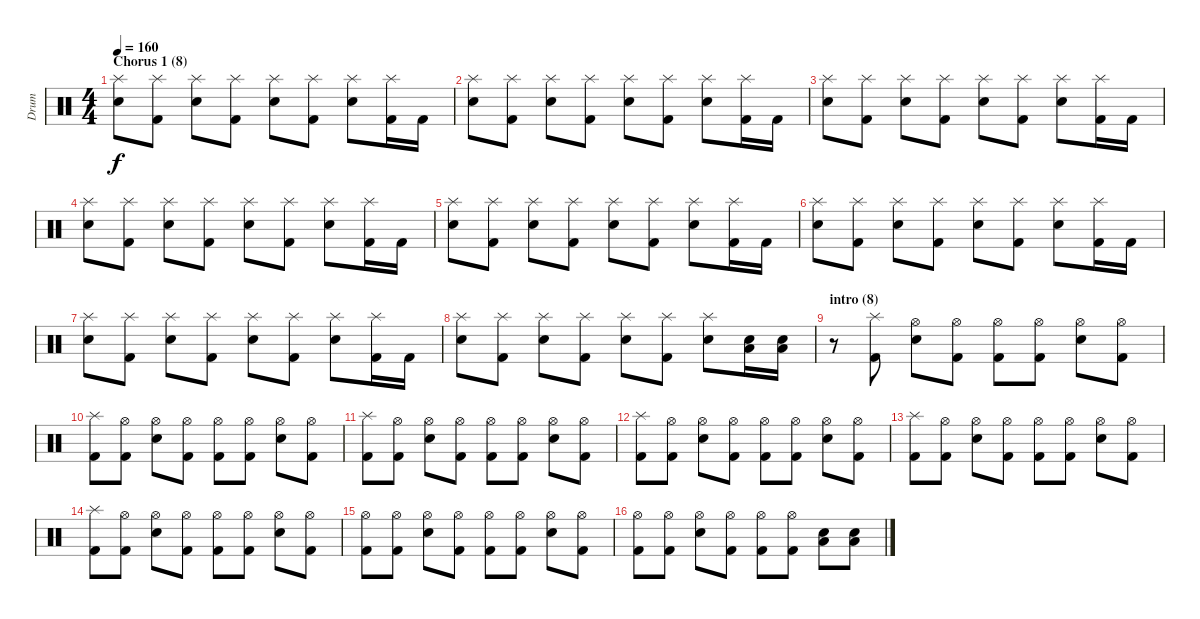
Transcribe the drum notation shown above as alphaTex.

\track ("Drum" "Drum") {instrument percussion}
\staff {score}
\articulation defaults
\ts (4 4)
\section ("" "Chorus 1 (8)")
\tempo 160
\clef neutral
\ks c
("Splash (hit)" "Snare (hit) 2").8{dy f} ("Splash (hit)" "Kick (hit) 2").8 ("Splash (hit)" "Snare (hit) 2").8 ("Splash (hit)" "Kick (hit) 2").8 ("Splash (hit)" "Snare (hit) 2").8 ("Splash (hit)" "Kick (hit) 2").8 ("Splash (hit)" "Snare (hit) 2").8 ("Splash (hit)" "Kick (hit) 2").16 "Kick (hit) 2".16 |
("Splash (hit)" "Snare (hit) 2").8 ("Splash (hit)" "Kick (hit) 2").8 ("Splash (hit)" "Snare (hit) 2").8 ("Splash (hit)" "Kick (hit) 2").8 ("Splash (hit)" "Snare (hit) 2").8 ("Splash (hit)" "Kick (hit) 2").8 ("Splash (hit)" "Snare (hit) 2").8 ("Splash (hit)" "Kick (hit) 2").16 "Kick (hit) 2".16 |
("Splash (hit)" "Snare (hit) 2").8 ("Splash (hit)" "Kick (hit) 2").8 ("Splash (hit)" "Snare (hit) 2").8 ("Splash (hit)" "Kick (hit) 2").8 ("Splash (hit)" "Snare (hit) 2").8 ("Splash (hit)" "Kick (hit) 2").8 ("Splash (hit)" "Snare (hit) 2").8 ("Splash (hit)" "Kick (hit) 2").16 "Kick (hit) 2".16 |
("Splash (hit)" "Snare (hit) 2").8 ("Splash (hit)" "Kick (hit) 2").8 ("Splash (hit)" "Snare (hit) 2").8 ("Splash (hit)" "Kick (hit) 2").8 ("Splash (hit)" "Snare (hit) 2").8 ("Splash (hit)" "Kick (hit) 2").8 ("Splash (hit)" "Snare (hit) 2").8 ("Splash (hit)" "Kick (hit) 2").16 "Kick (hit) 2".16 |
("Splash (hit)" "Snare (hit) 2").8 ("Splash (hit)" "Kick (hit) 2").8 ("Splash (hit)" "Snare (hit) 2").8 ("Splash (hit)" "Kick (hit) 2").8 ("Splash (hit)" "Snare (hit) 2").8 ("Splash (hit)" "Kick (hit) 2").8 ("Splash (hit)" "Snare (hit) 2").8 ("Splash (hit)" "Kick (hit) 2").16 "Kick (hit) 2".16 |
("Splash (hit)" "Snare (hit) 2").8 ("Splash (hit)" "Kick (hit) 2").8 ("Splash (hit)" "Snare (hit) 2").8 ("Splash (hit)" "Kick (hit) 2").8 ("Splash (hit)" "Snare (hit) 2").8 ("Splash (hit)" "Kick (hit) 2").8 ("Splash (hit)" "Snare (hit) 2").8 ("Splash (hit)" "Kick (hit) 2").16 "Kick (hit) 2".16 |
("Splash (hit)" "Snare (hit) 2").8 ("Splash (hit)" "Kick (hit) 2").8 ("Splash (hit)" "Snare (hit) 2").8 ("Splash (hit)" "Kick (hit) 2").8 ("Splash (hit)" "Snare (hit) 2").8 ("Splash (hit)" "Kick (hit) 2").8 ("Splash (hit)" "Snare (hit) 2").8 ("Splash (hit)" "Kick (hit) 2").16 "Kick (hit) 2".16 |
("Splash (hit)" "Snare (hit) 2").8 ("Splash (hit)" "Kick (hit) 2").8 ("Splash (hit)" "Snare (hit) 2").8 ("Splash (hit)" "Kick (hit) 2").8 ("Splash (hit)" "Snare (hit) 2").8 ("Splash (hit)" "Kick (hit) 2").8 ("Splash (hit)" "Snare (hit) 2").8 ("Low Floor Tom (hit)" "Snare (hit) 2").16 ("Low Floor Tom (hit)" "Snare (hit) 2").16 |
\section ("" "intro (8)")
r.8 ("Splash (hit)" "Kick (hit) 2").8 ("Hi-Hat (open)" "Snare (hit) 2").8 ("Hi-Hat (open)" "Kick (hit) 2").8 ("Hi-Hat (open)" "Kick (hit) 2").8 ("Hi-Hat (open)" "Kick (hit) 2").8 ("Hi-Hat (open)" "Snare (hit) 2").8 ("Hi-Hat (open)" "Kick (hit) 2").8 |
("Splash (hit)" "Kick (hit) 2").8 ("Hi-Hat (open)" "Kick (hit) 2").8 ("Hi-Hat (open)" "Snare (hit) 2").8 ("Hi-Hat (open)" "Kick (hit) 2").8 ("Hi-Hat (open)" "Kick (hit) 2").8 ("Hi-Hat (open)" "Kick (hit) 2").8 ("Hi-Hat (open)" "Snare (hit) 2").8 ("Hi-Hat (open)" "Kick (hit) 2").8 |
("Splash (hit)" "Kick (hit) 2").8 ("Hi-Hat (open)" "Kick (hit) 2").8 ("Hi-Hat (open)" "Snare (hit) 2").8 ("Hi-Hat (open)" "Kick (hit) 2").8 ("Hi-Hat (open)" "Kick (hit) 2").8 ("Hi-Hat (open)" "Kick (hit) 2").8 ("Hi-Hat (open)" "Snare (hit) 2").8 ("Hi-Hat (open)" "Kick (hit) 2").8 |
("Splash (hit)" "Kick (hit) 2").8 ("Hi-Hat (open)" "Kick (hit) 2").8 ("Hi-Hat (open)" "Snare (hit) 2").8 ("Hi-Hat (open)" "Kick (hit) 2").8 ("Hi-Hat (open)" "Kick (hit) 2").8 ("Hi-Hat (open)" "Kick (hit) 2").8 ("Hi-Hat (open)" "Snare (hit) 2").8 ("Hi-Hat (open)" "Kick (hit) 2").8 |
("Splash (hit)" "Kick (hit) 2").8 ("Hi-Hat (open)" "Kick (hit) 2").8 ("Hi-Hat (open)" "Snare (hit) 2").8 ("Hi-Hat (open)" "Kick (hit) 2").8 ("Hi-Hat (open)" "Kick (hit) 2").8 ("Hi-Hat (open)" "Kick (hit) 2").8 ("Hi-Hat (open)" "Snare (hit) 2").8 ("Hi-Hat (open)" "Kick (hit) 2").8 |
("Splash (hit)" "Kick (hit) 2").8 ("Hi-Hat (open)" "Kick (hit) 2").8 ("Hi-Hat (open)" "Snare (hit) 2").8 ("Hi-Hat (open)" "Kick (hit) 2").8 ("Hi-Hat (open)" "Kick (hit) 2").8 ("Hi-Hat (open)" "Kick (hit) 2").8 ("Hi-Hat (open)" "Snare (hit) 2").8 ("Hi-Hat (open)" "Kick (hit) 2").8 |
("Hi-Hat (open)" "Kick (hit) 2").8 ("Hi-Hat (open)" "Kick (hit) 2").8 ("Hi-Hat (open)" "Snare (hit) 2").8 ("Hi-Hat (open)" "Kick (hit) 2").8 ("Hi-Hat (open)" "Kick (hit) 2").8 ("Hi-Hat (open)" "Kick (hit) 2").8 ("Hi-Hat (open)" "Snare (hit) 2").8 ("Hi-Hat (open)" "Kick (hit) 2").8 |
("Hi-Hat (open)" "Kick (hit) 2").8 ("Hi-Hat (open)" "Kick (hit) 2").8 ("Hi-Hat (open)" "Snare (hit) 2").8 ("Hi-Hat (open)" "Kick (hit) 2").8 ("Hi-Hat (open)" "Kick (hit) 2").8 ("Hi-Hat (open)" "Kick (hit) 2").8 ("Low Floor Tom (hit)" "Snare (hit) 2").8 ("Low Floor Tom (hit)" "Snare (hit) 2").8
